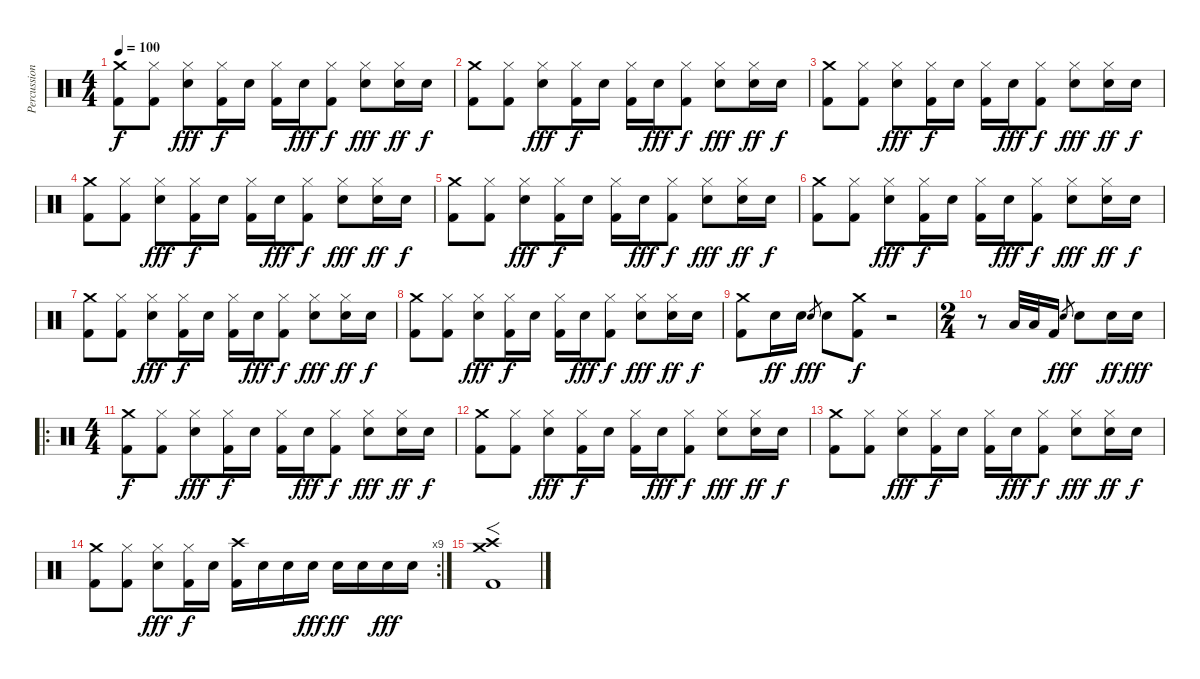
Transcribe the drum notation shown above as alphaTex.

\track ("Percussion" "Percussion") {instrument percussion}
\staff {score}
\articulation defaults
\ts (4 4)
\tempo 100
\clef neutral
\ks c
("Crash medium (hit)" "Kick (hit) 2").8{dy f} ("Hi-Hat (closed)" "Kick (hit) 2").8 ("Hi-Hat (closed)" "Electric Snare (hit)").8{dy fff} ("Hi-Hat (closed)" "Kick (hit) 2").16{dy f} "Electric Snare (hit)".16 ("Hi-Hat (closed)" "Kick (hit) 2").16 "Electric Snare (hit)".16{dy fff} ("Hi-Hat (closed)" "Kick (hit) 2").8{dy f} ("Hi-Hat (closed)" "Electric Snare (hit)").8{dy fff} ("Hi-Hat (closed)" "Electric Snare (hit)").16{dy ff} "Electric Snare (hit)".16{dy f} |
("Crash medium (hit)" "Kick (hit) 2").8 ("Hi-Hat (closed)" "Kick (hit) 2").8 ("Hi-Hat (closed)" "Electric Snare (hit)").8{dy fff} ("Hi-Hat (closed)" "Kick (hit) 2").16{dy f} "Electric Snare (hit)".16 ("Hi-Hat (closed)" "Kick (hit) 2").16 "Electric Snare (hit)".16{dy fff} ("Hi-Hat (closed)" "Kick (hit) 2").8{dy f} ("Hi-Hat (closed)" "Electric Snare (hit)").8{dy fff} ("Hi-Hat (closed)" "Electric Snare (hit)").16{dy ff} "Electric Snare (hit)".16{dy f} |
("Crash medium (hit)" "Kick (hit) 2").8 ("Hi-Hat (closed)" "Kick (hit) 2").8 ("Hi-Hat (closed)" "Electric Snare (hit)").8{dy fff} ("Hi-Hat (closed)" "Kick (hit) 2").16{dy f} "Electric Snare (hit)".16 ("Hi-Hat (closed)" "Kick (hit) 2").16 "Electric Snare (hit)".16{dy fff} ("Hi-Hat (closed)" "Kick (hit) 2").8{dy f} ("Hi-Hat (closed)" "Electric Snare (hit)").8{dy fff} ("Hi-Hat (closed)" "Electric Snare (hit)").16{dy ff} "Electric Snare (hit)".16{dy f} |
("Crash medium (hit)" "Kick (hit) 2").8 ("Hi-Hat (closed)" "Kick (hit) 2").8 ("Hi-Hat (closed)" "Electric Snare (hit)").8{dy fff} ("Hi-Hat (closed)" "Kick (hit) 2").16{dy f} "Electric Snare (hit)".16 ("Hi-Hat (closed)" "Kick (hit) 2").16 "Electric Snare (hit)".16{dy fff} ("Hi-Hat (closed)" "Kick (hit) 2").8{dy f} ("Hi-Hat (closed)" "Electric Snare (hit)").8{dy fff} ("Hi-Hat (closed)" "Electric Snare (hit)").16{dy ff} "Electric Snare (hit)".16{dy f} |
("Crash medium (hit)" "Kick (hit) 2").8 ("Hi-Hat (closed)" "Kick (hit) 2").8 ("Hi-Hat (closed)" "Electric Snare (hit)").8{dy fff} ("Hi-Hat (closed)" "Kick (hit) 2").16{dy f} "Electric Snare (hit)".16 ("Hi-Hat (closed)" "Kick (hit) 2").16 "Electric Snare (hit)".16{dy fff} ("Hi-Hat (closed)" "Kick (hit) 2").8{dy f} ("Hi-Hat (closed)" "Electric Snare (hit)").8{dy fff} ("Hi-Hat (closed)" "Electric Snare (hit)").16{dy ff} "Electric Snare (hit)".16{dy f} |
("Crash medium (hit)" "Kick (hit) 2").8 ("Hi-Hat (closed)" "Kick (hit) 2").8 ("Hi-Hat (closed)" "Electric Snare (hit)").8{dy fff} ("Hi-Hat (closed)" "Kick (hit) 2").16{dy f} "Electric Snare (hit)".16 ("Hi-Hat (closed)" "Kick (hit) 2").16 "Electric Snare (hit)".16{dy fff} ("Hi-Hat (closed)" "Kick (hit) 2").8{dy f} ("Hi-Hat (closed)" "Electric Snare (hit)").8{dy fff} ("Hi-Hat (closed)" "Electric Snare (hit)").16{dy ff} "Electric Snare (hit)".16{dy f} |
("Crash medium (hit)" "Kick (hit) 2").8 ("Hi-Hat (closed)" "Kick (hit) 2").8 ("Hi-Hat (closed)" "Electric Snare (hit)").8{dy fff} ("Hi-Hat (closed)" "Kick (hit) 2").16{dy f} "Electric Snare (hit)".16 ("Hi-Hat (closed)" "Kick (hit) 2").16 "Electric Snare (hit)".16{dy fff} ("Hi-Hat (closed)" "Kick (hit) 2").8{dy f} ("Hi-Hat (closed)" "Electric Snare (hit)").8{dy fff} ("Hi-Hat (closed)" "Electric Snare (hit)").16{dy ff} "Electric Snare (hit)".16{dy f} |
("Crash medium (hit)" "Kick (hit) 2").8 ("Hi-Hat (closed)" "Kick (hit) 2").8 ("Hi-Hat (closed)" "Electric Snare (hit)").8{dy fff} ("Hi-Hat (closed)" "Kick (hit) 2").16{dy f} "Electric Snare (hit)".16 ("Hi-Hat (closed)" "Kick (hit) 2").16 "Electric Snare (hit)".16{dy fff} ("Hi-Hat (closed)" "Kick (hit) 2").8{dy f} ("Hi-Hat (closed)" "Electric Snare (hit)").8{dy fff} ("Hi-Hat (closed)" "Electric Snare (hit)").16{dy ff} "Electric Snare (hit)".16{dy f} |
("Crash medium (hit)" "Kick (hit) 2").8 "Electric Snare (hit)".16{dy ff} "Electric Snare (hit)".16 "Electric Snare (hit)".8{gr dy fff} "Electric Snare (hit)".8 ("Crash medium (hit)" "Kick (hit) 2").8{dy f} r.2 |
\ts (2 4)
r.8 "Low Floor Tom (hit)".32 "Low Floor Tom (hit)".32 "Kick (hit) 2".16 "Electric Snare (hit)".8{gr dy fff} "Electric Snare (hit)".8 "Electric Snare (hit)".16{dy ff} "Electric Snare (hit)".16{dy fff} |
\ro
\ts (4 4)
("Crash medium (hit)" "Kick (hit) 2").8{dy f} ("Hi-Hat (closed)" "Kick (hit) 2").8 ("Hi-Hat (closed)" "Electric Snare (hit)").8{dy fff} ("Hi-Hat (closed)" "Kick (hit) 2").16{dy f} "Electric Snare (hit)".16 ("Hi-Hat (closed)" "Kick (hit) 2").16 "Electric Snare (hit)".16{dy fff} ("Hi-Hat (closed)" "Kick (hit) 2").8{dy f} ("Hi-Hat (closed)" "Electric Snare (hit)").8{dy fff} ("Hi-Hat (closed)" "Electric Snare (hit)").16{dy ff} "Electric Snare (hit)".16{dy f} |
("Crash medium (hit)" "Kick (hit) 2").8 ("Hi-Hat (closed)" "Kick (hit) 2").8 ("Hi-Hat (closed)" "Electric Snare (hit)").8{dy fff} ("Hi-Hat (closed)" "Kick (hit) 2").16{dy f} "Electric Snare (hit)".16 ("Hi-Hat (closed)" "Kick (hit) 2").16 "Electric Snare (hit)".16{dy fff} ("Hi-Hat (closed)" "Kick (hit) 2").8{dy f} ("Hi-Hat (closed)" "Electric Snare (hit)").8{dy fff} ("Hi-Hat (closed)" "Electric Snare (hit)").16{dy ff} "Electric Snare (hit)".16{dy f} |
("Crash medium (hit)" "Kick (hit) 2").8 ("Hi-Hat (closed)" "Kick (hit) 2").8 ("Hi-Hat (closed)" "Electric Snare (hit)").8{dy fff} ("Hi-Hat (closed)" "Kick (hit) 2").16{dy f} "Electric Snare (hit)".16 ("Hi-Hat (closed)" "Kick (hit) 2").16 "Electric Snare (hit)".16{dy fff} ("Hi-Hat (closed)" "Kick (hit) 2").8{dy f} ("Hi-Hat (closed)" "Electric Snare (hit)").8{dy fff} ("Hi-Hat (closed)" "Electric Snare (hit)").16{dy ff} "Electric Snare (hit)".16{dy f} |
\rc 9
("Crash medium (hit)" "Kick (hit) 2").8 ("Hi-Hat (closed)" "Kick (hit) 2").8 ("Hi-Hat (closed)" "Electric Snare (hit)").8{dy fff} ("Hi-Hat (closed)" "Kick (hit) 2").16{dy f} "Electric Snare (hit)".16 ("Crash high (hit)" "Kick (hit) 2").16 "Electric Snare (hit)".16 "Electric Snare (hit)".16 "Electric Snare (hit)".16{dy fff} "Electric Snare (hit)".16{dy ff} "Electric Snare (hit)".16 "Electric Snare (hit)".16{dy fff} "Electric Snare (hit)".16 |
("Crash medium (hit)" "Crash high (hit)" "Kick (hit) 2").1{f}
